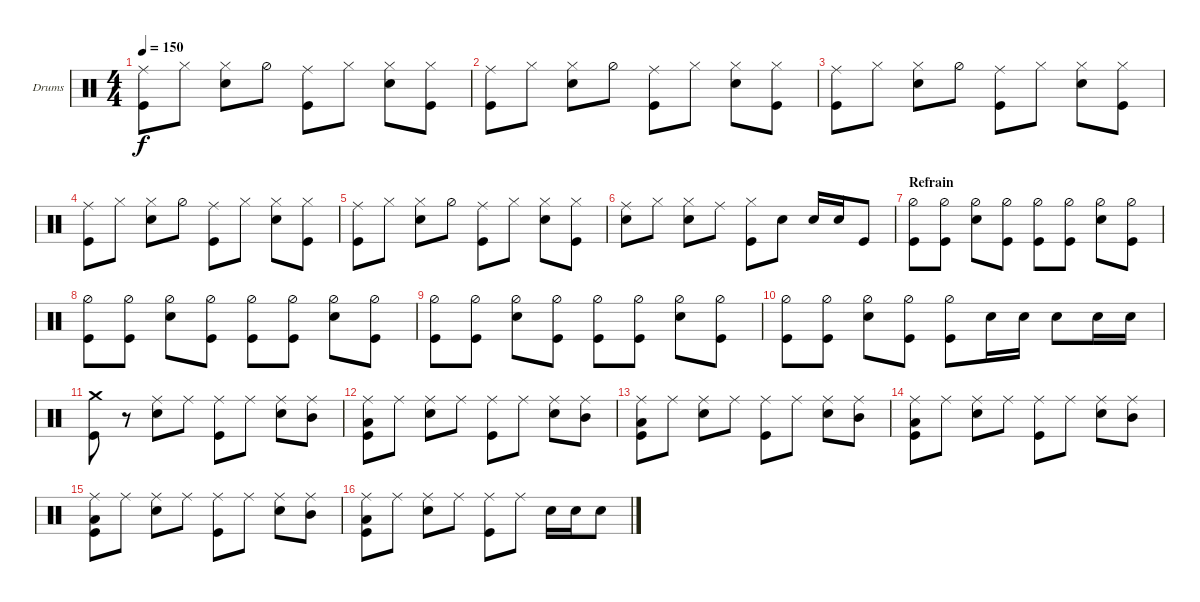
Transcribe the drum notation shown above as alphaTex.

\bracketExtendMode groupsimilarinstruments
\firstSystemTrackNameOrientation horizontal
\otherSystemsTrackNameOrientation horizontal
\track ("Drumkit" "Drums") {instrument percussion}
\staff {score}
\articulation defaults
\ts (4 4)
\tempo 150
\clef neutral
\ks c
("Kick (hit)" "Ride (middle)").8{dy f} "Hi-Hat (closed)".8 ("Hi-Hat (closed)" "Snare (hit) 2").8 "Hi-Hat (half)".8 ("Kick (hit)" "Ride (middle)").8 "Hi-Hat (closed)".8 ("Hi-Hat (closed)" "Snare (hit) 2").8 ("Hi-Hat (closed)" "Kick (hit)").8 |
("Kick (hit)" "Ride (middle)").8 "Hi-Hat (closed)".8 ("Hi-Hat (closed)" "Snare (hit) 2").8 "Hi-Hat (half)".8 ("Kick (hit)" "Ride (middle)").8 "Hi-Hat (closed)".8 ("Hi-Hat (closed)" "Snare (hit) 2").8 ("Hi-Hat (closed)" "Kick (hit)").8 |
("Kick (hit)" "Ride (middle)").8 "Hi-Hat (closed)".8 ("Hi-Hat (closed)" "Snare (hit) 2").8 "Hi-Hat (half)".8 ("Kick (hit)" "Ride (middle)").8 "Hi-Hat (closed)".8 ("Hi-Hat (closed)" "Snare (hit) 2").8 ("Hi-Hat (closed)" "Kick (hit)").8 |
("Kick (hit)" "Ride (middle)").8 "Hi-Hat (closed)".8 ("Hi-Hat (closed)" "Snare (hit) 2").8 "Hi-Hat (half)".8 ("Kick (hit)" "Ride (middle)").8 "Hi-Hat (closed)".8 ("Hi-Hat (closed)" "Snare (hit) 2").8 ("Hi-Hat (closed)" "Kick (hit)").8 |
("Kick (hit)" "Ride (middle)").8 "Hi-Hat (closed)".8 ("Hi-Hat (closed)" "Snare (hit) 2").8 "Hi-Hat (half)".8 ("Kick (hit)" "Ride (middle)").8 "Hi-Hat (closed)".8 ("Hi-Hat (closed)" "Snare (hit) 2").8 ("Hi-Hat (closed)" "Kick (hit)").8 |
("Snare (hit) 2" "Ride (middle)").8 "Hi-Hat (closed)".8 ("Hi-Hat (closed)" "Snare (hit) 2").8 "Ride (middle)".8 ("Hi-Hat (closed)" "Kick (hit)").8 "Snare (hit) 2".8 "Snare (hit) 2".16 "Snare (hit) 2".16 "Kick (hit)".8 |
\section ("" "Refrain")
("Kick (hit)" "Hi-Hat (half)").8 ("Hi-Hat (half)" "Kick (hit)").8 ("Hi-Hat (half)" "Snare (hit) 2").8 ("Hi-Hat (half)" "Kick (hit)").8 ("Hi-Hat (half)" "Kick (hit)").8 ("Hi-Hat (half)" "Kick (hit)").8 ("Hi-Hat (half)" "Snare (hit) 2").8 ("Hi-Hat (half)" "Kick (hit)").8 |
("Hi-Hat (half)" "Kick (hit)").8 ("Hi-Hat (half)" "Kick (hit)").8 ("Hi-Hat (half)" "Snare (hit) 2").8 ("Hi-Hat (half)" "Kick (hit)").8 ("Hi-Hat (half)" "Kick (hit)").8 ("Hi-Hat (half)" "Kick (hit)").8 ("Hi-Hat (half)" "Snare (hit) 2").8 ("Hi-Hat (half)" "Kick (hit)").8 |
("Hi-Hat (half)" "Kick (hit)").8 ("Hi-Hat (half)" "Kick (hit)").8 ("Hi-Hat (half)" "Snare (hit) 2").8 ("Hi-Hat (half)" "Kick (hit)").8 ("Hi-Hat (half)" "Kick (hit)").8 ("Hi-Hat (half)" "Kick (hit)").8 ("Hi-Hat (half)" "Snare (hit) 2").8 ("Hi-Hat (half)" "Kick (hit)").8 |
("Hi-Hat (half)" "Kick (hit)").8 ("Hi-Hat (half)" "Kick (hit)").8 ("Hi-Hat (half)" "Snare (hit) 2").8 ("Hi-Hat (half)" "Kick (hit)").8 ("Hi-Hat (half)" "Kick (hit)").8 "Snare (hit) 2".16 "Snare (hit) 2".16 "Snare (hit) 2".8 "Snare (hit) 2".16 "Snare (hit) 2".16 |
("Kick (hit)" "Crash medium (hit)").8 r.8 ("Snare (hit) 2" "Ride (middle)").8 "Ride (middle)".8 ("Kick (hit)" "Ride (middle)").8 "Ride (middle)".8 ("Snare (hit) 2" "Ride (middle)").8 ("Ride (middle)" "Mid Tom (hit)").8 |
("Kick (hit)" "Ride (middle)" "Low Tom (hit)").8 "Ride (middle)".8 ("Snare (hit) 2" "Ride (middle)").8 "Ride (middle)".8 ("Kick (hit)" "Ride (middle)").8 "Ride (middle)".8 ("Snare (hit) 2" "Ride (middle)").8 ("Ride (middle)" "Mid Tom (hit)").8 |
("Kick (hit)" "Ride (middle)" "Low Tom (hit)").8 "Ride (middle)".8 ("Snare (hit) 2" "Ride (middle)").8 "Ride (middle)".8 ("Kick (hit)" "Ride (middle)").8 "Ride (middle)".8 ("Snare (hit) 2" "Ride (middle)").8 ("Ride (middle)" "Mid Tom (hit)").8 |
("Kick (hit)" "Ride (middle)" "Low Tom (hit)").8 "Ride (middle)".8 ("Snare (hit) 2" "Ride (middle)").8 "Ride (middle)".8 ("Kick (hit)" "Ride (middle)").8 "Ride (middle)".8 ("Snare (hit) 2" "Ride (middle)").8 ("Ride (middle)" "Mid Tom (hit)").8 |
("Kick (hit)" "Ride (middle)" "Low Tom (hit)").8 "Ride (middle)".8 ("Snare (hit) 2" "Ride (middle)").8 "Ride (middle)".8 ("Kick (hit)" "Ride (middle)").8 "Ride (middle)".8 ("Snare (hit) 2" "Ride (middle)").8 ("Ride (middle)" "Mid Tom (hit)").8 |
("Kick (hit)" "Ride (middle)" "Low Tom (hit)").8 "Ride (middle)".8 ("Snare (hit) 2" "Ride (middle)").8 "Ride (middle)".8 ("Kick (hit)" "Ride (middle)").8 "Ride (middle)".8 "Snare (hit) 2".16 "Snare (hit) 2".16 "Snare (hit) 2".8
